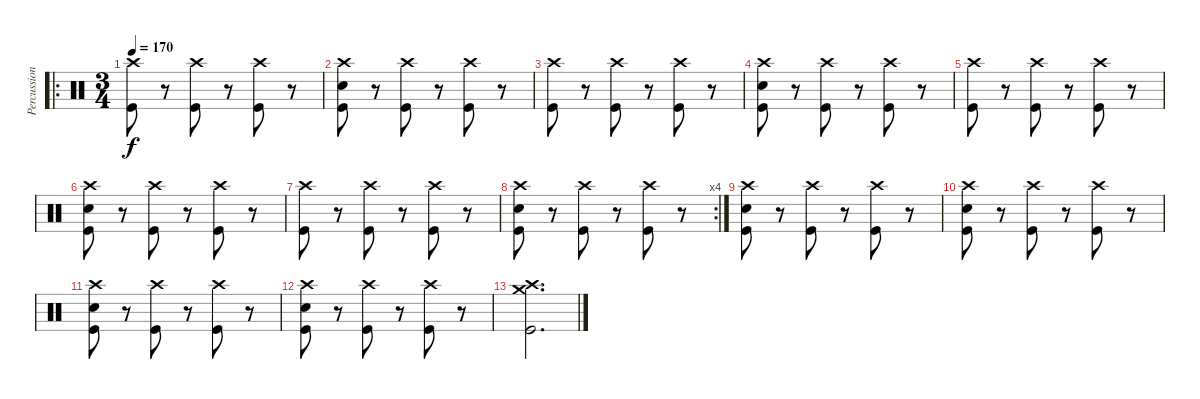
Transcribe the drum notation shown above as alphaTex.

\track ("Percussion" "Percussion") {instrument percussion}
\staff {score}
\articulation defaults
\ro
\ts (3 4)
\tempo 170
\clef neutral
\ks c
("Crash high (hit)" "Kick (hit)").8{dy f} r.8 ("Crash high (hit)" "Kick (hit)").8 r.8 ("Crash high (hit)" "Kick (hit)").8 r.8 |
("Crash high (hit)" "Snare (hit) 2" "Kick (hit)").8 r.8 ("Crash high (hit)" "Kick (hit)").8 r.8 ("Crash high (hit)" "Kick (hit)").8 r.8 |
("Crash high (hit)" "Kick (hit)").8 r.8 ("Crash high (hit)" "Kick (hit)").8 r.8 ("Crash high (hit)" "Kick (hit)").8 r.8 |
("Crash high (hit)" "Snare (hit) 2" "Kick (hit)").8 r.8 ("Crash high (hit)" "Kick (hit)").8 r.8 ("Crash high (hit)" "Kick (hit)").8 r.8 |
("Crash high (hit)" "Kick (hit)").8 r.8 ("Crash high (hit)" "Kick (hit)").8 r.8 ("Crash high (hit)" "Kick (hit)").8 r.8 |
("Crash high (hit)" "Snare (hit) 2" "Kick (hit)").8 r.8 ("Crash high (hit)" "Kick (hit)").8 r.8 ("Crash high (hit)" "Kick (hit)").8 r.8 |
("Crash high (hit)" "Kick (hit)").8 r.8 ("Crash high (hit)" "Kick (hit)").8 r.8 ("Crash high (hit)" "Kick (hit)").8 r.8 |
\rc 4
("Crash high (hit)" "Snare (hit) 2" "Kick (hit)").8 r.8 ("Crash high (hit)" "Kick (hit)").8 r.8 ("Crash high (hit)" "Kick (hit)").8 r.8 |
("Crash high (hit)" "Snare (hit) 2" "Kick (hit)").8 r.8 ("Crash high (hit)" "Kick (hit)").8 r.8 ("Crash high (hit)" "Kick (hit)").8 r.8 |
("Crash high (hit)" "Snare (hit) 2" "Kick (hit)").8 r.8 ("Crash high (hit)" "Kick (hit)").8 r.8 ("Crash high (hit)" "Kick (hit)").8 r.8 |
("Crash high (hit)" "Snare (hit) 2" "Kick (hit)").8 r.8 ("Crash high (hit)" "Kick (hit)").8 r.8 ("Crash high (hit)" "Kick (hit)").8 r.8 |
("Crash high (hit)" "Snare (hit) 2" "Kick (hit)").8 r.8 ("Crash high (hit)" "Kick (hit)").8 r.8 ("Crash high (hit)" "Kick (hit)").8 r.8 |
("Crash medium (hit)" "Crash high (hit)" "Kick (hit)").2{d}
